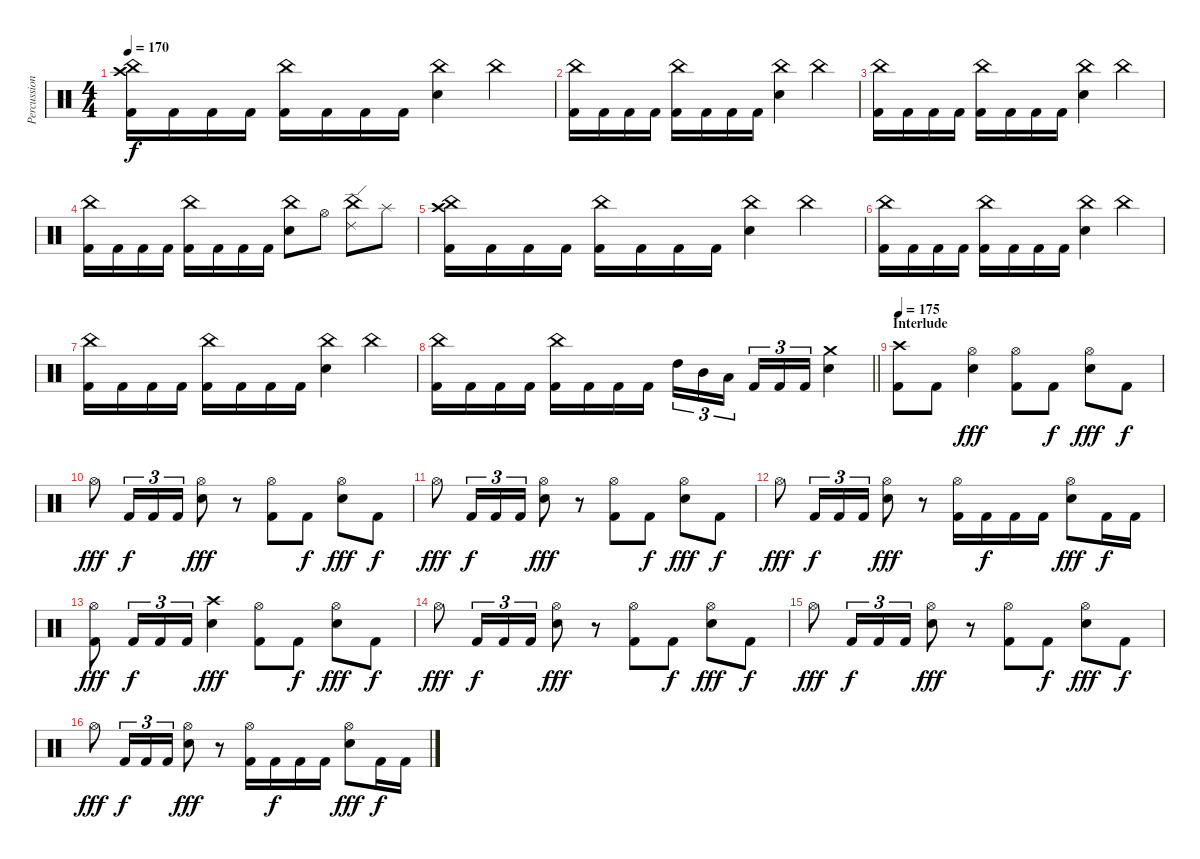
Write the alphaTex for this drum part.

\track ("Percussion" "Percussion") {instrument percussion}
\staff {score}
\articulation defaults
\ts (4 4)
\tempo 170
\clef neutral
\ks c
("China (hit)" "Crash high (hit)" "Kick (hit) 2").16{dy f} "Kick (hit) 2".16 "Kick (hit) 2".16 "Kick (hit) 2".16 ("China (hit)" "Kick (hit) 2").16 "Kick (hit) 2".16 "Kick (hit) 2".16 "Kick (hit) 2".16 ("China (hit)" "Electric Snare (hit)").4 "China (hit)".4 |
("China (hit)" "Kick (hit) 2").16 "Kick (hit) 2".16 "Kick (hit) 2".16 "Kick (hit) 2".16 ("China (hit)" "Kick (hit) 2").16 "Kick (hit) 2".16 "Kick (hit) 2".16 "Kick (hit) 2".16 ("China (hit)" "Electric Snare (hit)").4 "China (hit)".4 |
("China (hit)" "Kick (hit) 2").16 "Kick (hit) 2".16 "Kick (hit) 2".16 "Kick (hit) 2".16 ("China (hit)" "Kick (hit) 2").16 "Kick (hit) 2".16 "Kick (hit) 2".16 "Kick (hit) 2".16 ("China (hit)" "Electric Snare (hit)").4 "China (hit)".4 |
("China (hit)" "Kick (hit) 2").16 "Kick (hit) 2".16 "Kick (hit) 2".16 "Kick (hit) 2".16 ("China (hit)" "Kick (hit) 2").16 "Kick (hit) 2".16 "Kick (hit) 2".16 "Kick (hit) 2".16 ("China (hit)" "Electric Snare (hit)").8 "Hi-Hat (open)".8 ("China (hit)" "Ride (edge) 2").8 "Splash (hit)".8 |
("China (hit)" "Crash high (hit)" "Kick (hit) 2").16 "Kick (hit) 2".16 "Kick (hit) 2".16 "Kick (hit) 2".16 ("China (hit)" "Kick (hit) 2").16 "Kick (hit) 2".16 "Kick (hit) 2".16 "Kick (hit) 2".16 ("China (hit)" "Electric Snare (hit)").4 "China (hit)".4 |
("China (hit)" "Kick (hit) 2").16 "Kick (hit) 2".16 "Kick (hit) 2".16 "Kick (hit) 2".16 ("China (hit)" "Kick (hit) 2").16 "Kick (hit) 2".16 "Kick (hit) 2".16 "Kick (hit) 2".16 ("China (hit)" "Electric Snare (hit)").4 "China (hit)".4 |
("China (hit)" "Kick (hit) 2").16 "Kick (hit) 2".16 "Kick (hit) 2".16 "Kick (hit) 2".16 ("China (hit)" "Kick (hit) 2").16 "Kick (hit) 2".16 "Kick (hit) 2".16 "Kick (hit) 2".16 ("China (hit)" "Electric Snare (hit)").4 "China (hit)".4 |
\barLineRight lightlight
("China (hit)" "Kick (hit) 2").16 "Kick (hit) 2".16 "Kick (hit) 2".16 "Kick (hit) 2".16 ("China (hit)" "Kick (hit) 2").16 "Kick (hit) 2".16 "Kick (hit) 2".16 "Kick (hit) 2".16 "High Tom (hit)".16{tu (3 2)} "Mid Tom (hit)".16{tu (3 2)} "Low Tom (hit)".16{tu (3 2) beam splitsecondary} "Kick (hit) 2".16{tu (3 2)} "Kick (hit) 2".16{tu (3 2)} "Kick (hit) 2".16{tu (3 2)} ("Crash medium (hit)" "Electric Snare (hit)").4 |
\section ("" "Interlude")
\tempo 175
("Crash high (hit)" "Kick (hit) 2").8 "Kick (hit) 2".8 ("Hi-Hat (open)" "Electric Snare (hit)").4{dy fff} ("Hi-Hat (open)" "Kick (hit) 2").8 "Kick (hit) 2".8{dy f} ("Hi-Hat (open)" "Electric Snare (hit)").8{dy fff} "Kick (hit) 2".8{dy f} |
"Hi-Hat (open)".8{dy fff} "Kick (hit) 2".16{tu (3 2) dy f} "Kick (hit) 2".16{tu (3 2)} "Kick (hit) 2".16{tu (3 2)} ("Hi-Hat (open)" "Electric Snare (hit)").8{dy fff} r.8 ("Hi-Hat (open)" "Kick (hit) 2").8 "Kick (hit) 2".8{dy f} ("Hi-Hat (open)" "Electric Snare (hit)").8{dy fff} "Kick (hit) 2".8{dy f} |
"Hi-Hat (open)".8{dy fff} "Kick (hit) 2".16{tu (3 2) dy f} "Kick (hit) 2".16{tu (3 2)} "Kick (hit) 2".16{tu (3 2)} ("Hi-Hat (open)" "Electric Snare (hit)").8{dy fff} r.8 ("Hi-Hat (open)" "Kick (hit) 2").8 "Kick (hit) 2".8{dy f} ("Hi-Hat (open)" "Electric Snare (hit)").8{dy fff} "Kick (hit) 2".8{dy f} |
"Hi-Hat (open)".8{dy fff} "Kick (hit) 2".16{tu (3 2) dy f} "Kick (hit) 2".16{tu (3 2)} "Kick (hit) 2".16{tu (3 2)} ("Hi-Hat (open)" "Electric Snare (hit)").8{dy fff} r.8 ("Hi-Hat (open)" "Kick (hit) 2").16 "Kick (hit) 2".16{dy f} "Kick (hit) 2".16 "Kick (hit) 2".16 ("Hi-Hat (open)" "Electric Snare (hit)").8{dy fff} "Kick (hit) 2".16{dy f} "Kick (hit) 2".16 |
("Hi-Hat (open)" "Kick (hit) 2").8{dy fff} "Kick (hit) 2".16{tu (3 2) dy f} "Kick (hit) 2".16{tu (3 2)} "Kick (hit) 2".16{tu (3 2)} ("Crash high (hit)" "Electric Snare (hit)").4{dy fff} ("Hi-Hat (open)" "Kick (hit) 2").8 "Kick (hit) 2".8{dy f} ("Hi-Hat (open)" "Electric Snare (hit)").8{dy fff} "Kick (hit) 2".8{dy f} |
"Hi-Hat (open)".8{dy fff} "Kick (hit) 2".16{tu (3 2) dy f} "Kick (hit) 2".16{tu (3 2)} "Kick (hit) 2".16{tu (3 2)} ("Hi-Hat (open)" "Electric Snare (hit)").8{dy fff} r.8 ("Hi-Hat (open)" "Kick (hit) 2").8 "Kick (hit) 2".8{dy f} ("Hi-Hat (open)" "Electric Snare (hit)").8{dy fff} "Kick (hit) 2".8{dy f} |
"Hi-Hat (open)".8{dy fff} "Kick (hit) 2".16{tu (3 2) dy f} "Kick (hit) 2".16{tu (3 2)} "Kick (hit) 2".16{tu (3 2)} ("Hi-Hat (open)" "Electric Snare (hit)").8{dy fff} r.8 ("Hi-Hat (open)" "Kick (hit) 2").8 "Kick (hit) 2".8{dy f} ("Hi-Hat (open)" "Electric Snare (hit)").8{dy fff} "Kick (hit) 2".8{dy f} |
"Hi-Hat (open)".8{dy fff} "Kick (hit) 2".16{tu (3 2) dy f} "Kick (hit) 2".16{tu (3 2)} "Kick (hit) 2".16{tu (3 2)} ("Hi-Hat (open)" "Electric Snare (hit)").8{dy fff} r.8 ("Hi-Hat (open)" "Kick (hit) 2").16 "Kick (hit) 2".16{dy f} "Kick (hit) 2".16 "Kick (hit) 2".16 ("Hi-Hat (open)" "Electric Snare (hit)").8{dy fff} "Kick (hit) 2".16{dy f} "Kick (hit) 2".16
